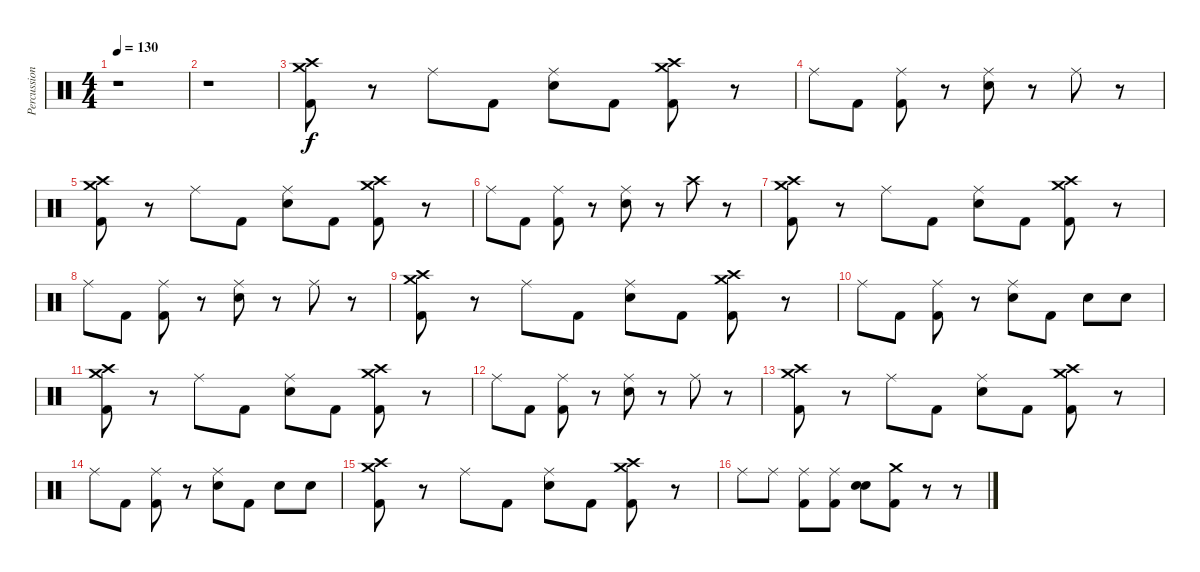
\track ("Percussion" "Percussion") {instrument percussion}
\staff {score}
\articulation defaults
\ts (4 4)
\tempo 130
\clef neutral
\ks c
r.1{dy f} |
r.1 |
("Crash medium (hit)" "Crash high (hit)" "Kick (hit) 2").8 r.8 "Ride (middle)".8 "Kick (hit) 2".8 ("Ride (middle)" "Snare (hit) 2").8 "Kick (hit) 2".8 ("Crash medium (hit)" "Crash high (hit)" "Kick (hit) 2").8 r.8 |
"Ride (middle)".8 "Kick (hit) 2".8 ("Ride (middle)" "Kick (hit) 2").8 r.8 ("Ride (middle)" "Snare (hit) 2").8 r.8 "Ride (middle)".8 r.8 |
("Crash medium (hit)" "Crash high (hit)" "Kick (hit) 2").8 r.8 "Ride (middle)".8 "Kick (hit) 2".8 ("Ride (middle)" "Snare (hit) 2").8 "Kick (hit) 2".8 ("Crash medium (hit)" "Crash high (hit)" "Kick (hit) 2").8 r.8 |
"Ride (middle)".8 "Kick (hit) 2".8 ("Ride (middle)" "Kick (hit) 2").8 r.8 ("Ride (middle)" "Snare (hit) 2").8 r.8 "Crash high (hit)".8 r.8 |
("Crash medium (hit)" "Crash high (hit)" "Kick (hit) 2").8 r.8 "Ride (middle)".8 "Kick (hit) 2".8 ("Ride (middle)" "Snare (hit) 2").8 "Kick (hit) 2".8 ("Crash medium (hit)" "Crash high (hit)" "Kick (hit) 2").8 r.8 |
"Ride (middle)".8 "Kick (hit) 2".8 ("Ride (middle)" "Kick (hit) 2").8 r.8 ("Ride (middle)" "Snare (hit) 2").8 r.8 "Ride (middle)".8 r.8 |
("Crash medium (hit)" "Crash high (hit)" "Kick (hit) 2").8 r.8 "Ride (middle)".8 "Kick (hit) 2".8 ("Ride (middle)" "Snare (hit) 2").8 "Kick (hit) 2".8 ("Crash medium (hit)" "Crash high (hit)" "Kick (hit) 2").8 r.8 |
"Ride (middle)".8 "Kick (hit) 2".8 ("Ride (middle)" "Kick (hit) 2").8 r.8 ("Ride (middle)" "Snare (hit) 2").8 "Kick (hit) 2".8 "Snare (hit) 2".8 "Snare (hit) 2".8 |
("Crash medium (hit)" "Crash high (hit)" "Kick (hit) 2").8 r.8 "Ride (middle)".8 "Kick (hit) 2".8 ("Ride (middle)" "Snare (hit) 2").8 "Kick (hit) 2".8 ("Crash medium (hit)" "Crash high (hit)" "Kick (hit) 2").8 r.8 |
"Ride (middle)".8 "Kick (hit) 2".8 ("Ride (middle)" "Kick (hit) 2").8 r.8 ("Ride (middle)" "Snare (hit) 2").8 r.8 "Ride (middle)".8 r.8 |
("Crash medium (hit)" "Crash high (hit)" "Kick (hit) 2").8 r.8 "Ride (middle)".8 "Kick (hit) 2".8 ("Ride (middle)" "Snare (hit) 2").8 "Kick (hit) 2".8 ("Crash medium (hit)" "Crash high (hit)" "Kick (hit) 2").8 r.8 |
"Ride (middle)".8 "Kick (hit) 2".8 ("Ride (middle)" "Kick (hit) 2").8 r.8 ("Ride (middle)" "Snare (hit) 2").8 "Kick (hit) 2".8 "Snare (hit) 2".8 "Snare (hit) 2".8 |
("Crash medium (hit)" "Crash high (hit)" "Kick (hit) 2").8 r.8 "Ride (middle)".8 "Kick (hit) 2".8 ("Ride (middle)" "Snare (hit) 2").8 "Kick (hit) 2".8 ("Crash medium (hit)" "Crash high (hit)" "Kick (hit) 2").8 r.8 |
"Ride (middle)".8 "Ride (middle)".8 ("Ride (middle)" "Kick (hit) 2").8 ("Ride (middle)" "Kick (hit) 2").8 ("Snare (hit) 2" "Snare (hit) 2").8{bd 240} ("Crash medium (hit)" "Kick (hit) 2").8 r.8 r.8
